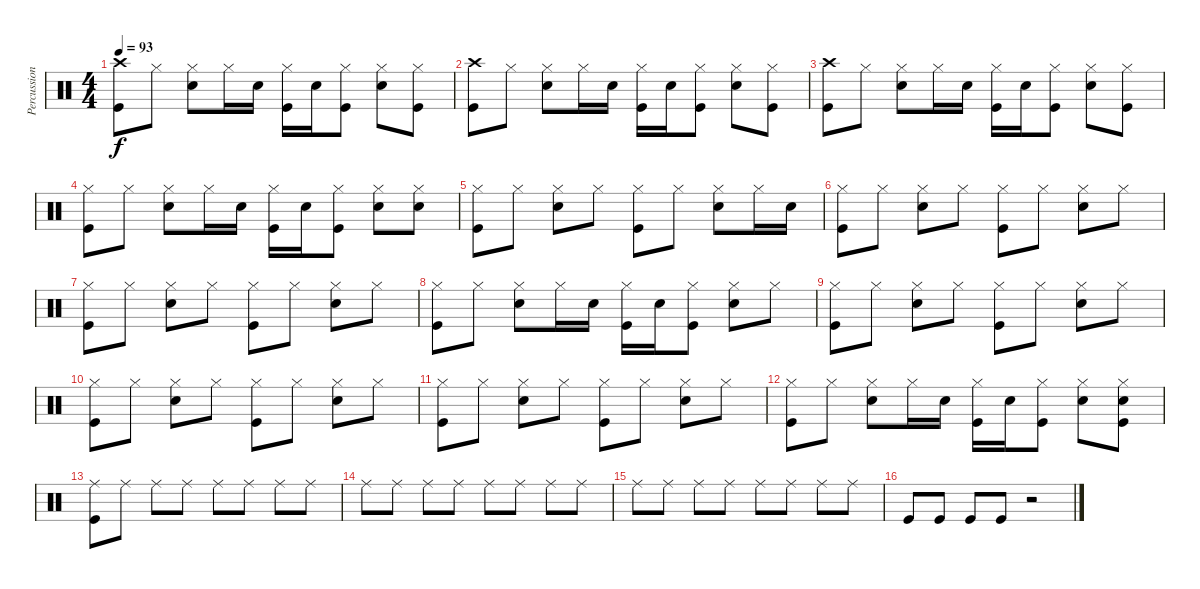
\track ("Percussion" "Percussion") {instrument percussion}
\staff {score}
\articulation defaults
\ts (4 4)
\tempo 93
\clef neutral
\ks c
("Crash high (hit)" "Kick (hit)").8{dy f} "Hi-Hat (closed)".8 ("Hi-Hat (closed)" "Snare (hit) 2").8 "Hi-Hat (closed)".16 "Snare (hit) 2".16 ("Hi-Hat (closed)" "Kick (hit)").16 "Snare (hit) 2".16 ("Hi-Hat (closed)" "Kick (hit)").8 ("Hi-Hat (closed)" "Snare (hit) 2").8 ("Hi-Hat (closed)" "Kick (hit)").8 |
("Crash high (hit)" "Kick (hit)").8 "Hi-Hat (closed)".8 ("Hi-Hat (closed)" "Snare (hit) 2").8 "Hi-Hat (closed)".16 "Snare (hit) 2".16 ("Hi-Hat (closed)" "Kick (hit)").16 "Snare (hit) 2".16 ("Hi-Hat (closed)" "Kick (hit)").8 ("Hi-Hat (closed)" "Snare (hit) 2").8 ("Hi-Hat (closed)" "Kick (hit)").8 |
("Crash high (hit)" "Kick (hit)").8 "Hi-Hat (closed)".8 ("Hi-Hat (closed)" "Snare (hit) 2").8 "Hi-Hat (closed)".16 "Snare (hit) 2".16 ("Hi-Hat (closed)" "Kick (hit)").16 "Snare (hit) 2".16 ("Hi-Hat (closed)" "Kick (hit)").8 ("Hi-Hat (closed)" "Snare (hit) 2").8 ("Hi-Hat (closed)" "Kick (hit)").8 |
("Hi-Hat (closed)" "Kick (hit)").8 "Hi-Hat (closed)".8 ("Hi-Hat (closed)" "Snare (hit) 2").8 "Hi-Hat (closed)".16 "Snare (hit) 2".16 ("Hi-Hat (closed)" "Kick (hit)").16 "Snare (hit) 2".16 ("Hi-Hat (closed)" "Kick (hit)").8 ("Hi-Hat (closed)" "Snare (hit) 2").8 ("Hi-Hat (closed)" "Snare (hit) 2").8 |
("Hi-Hat (closed)" "Kick (hit)").8 "Hi-Hat (closed)".8 ("Hi-Hat (closed)" "Snare (hit) 2").8 "Hi-Hat (closed)".8 ("Hi-Hat (closed)" "Kick (hit)").8 "Hi-Hat (closed)".8 ("Hi-Hat (closed)" "Snare (hit) 2").8 "Hi-Hat (closed)".16 "Snare (hit) 2".16 |
("Hi-Hat (closed)" "Kick (hit)").8 "Hi-Hat (closed)".8 ("Hi-Hat (closed)" "Snare (hit) 2").8 "Hi-Hat (closed)".8 ("Hi-Hat (closed)" "Kick (hit)").8 "Hi-Hat (closed)".8 ("Hi-Hat (closed)" "Snare (hit) 2").8 "Hi-Hat (closed)".8 |
("Hi-Hat (closed)" "Kick (hit)").8 "Hi-Hat (closed)".8 ("Hi-Hat (closed)" "Snare (hit) 2").8 "Hi-Hat (closed)".8 ("Hi-Hat (closed)" "Kick (hit)").8 "Hi-Hat (closed)".8 ("Hi-Hat (closed)" "Snare (hit) 2").8 "Hi-Hat (closed)".8 |
("Hi-Hat (closed)" "Kick (hit)").8 "Hi-Hat (closed)".8 ("Hi-Hat (closed)" "Snare (hit) 2").8 "Hi-Hat (closed)".16 "Snare (hit) 2".16 ("Hi-Hat (closed)" "Kick (hit)").16 "Snare (hit) 2".16 ("Hi-Hat (closed)" "Kick (hit)").8 ("Hi-Hat (closed)" "Snare (hit) 2").8 "Hi-Hat (closed)".8 |
("Hi-Hat (closed)" "Kick (hit)").8 "Hi-Hat (closed)".8 ("Hi-Hat (closed)" "Snare (hit) 2").8 "Hi-Hat (closed)".8 ("Hi-Hat (closed)" "Kick (hit)").8 "Hi-Hat (closed)".8 ("Hi-Hat (closed)" "Snare (hit) 2").8 "Hi-Hat (closed)".8 |
("Hi-Hat (closed)" "Kick (hit)").8 "Hi-Hat (closed)".8 ("Hi-Hat (closed)" "Snare (hit) 2").8 "Hi-Hat (closed)".8 ("Hi-Hat (closed)" "Kick (hit)").8 "Hi-Hat (closed)".8 ("Hi-Hat (closed)" "Snare (hit) 2").8 "Hi-Hat (closed)".8 |
("Hi-Hat (closed)" "Kick (hit)").8 "Hi-Hat (closed)".8 ("Hi-Hat (closed)" "Snare (hit) 2").8 "Hi-Hat (closed)".8 ("Hi-Hat (closed)" "Kick (hit)").8 "Hi-Hat (closed)".8 ("Hi-Hat (closed)" "Snare (hit) 2").8 "Hi-Hat (closed)".8 |
("Hi-Hat (closed)" "Kick (hit)").8 "Hi-Hat (closed)".8 ("Hi-Hat (closed)" "Snare (hit) 2").8 "Hi-Hat (closed)".16 "Snare (hit) 2".16 ("Hi-Hat (closed)" "Kick (hit)").16 "Snare (hit) 2".16 ("Hi-Hat (closed)" "Kick (hit)").8 ("Hi-Hat (closed)" "Snare (hit) 2").8 ("Hi-Hat (closed)" "Snare (hit) 2" "Kick (hit)").8 |
("Ride (middle)" "Kick (hit)").8 "Ride (middle)".8 "Ride (middle)".8 "Ride (middle)".8 "Ride (middle)".8 "Ride (middle)".8 "Ride (middle)".8 "Ride (middle)".8 |
"Ride (middle)".8 "Ride (middle)".8 "Ride (middle)".8 "Ride (middle)".8 "Ride (middle)".8 "Ride (middle)".8 "Ride (middle)".8 "Ride (middle)".8 |
"Ride (middle)".8 "Ride (middle)".8 "Ride (middle)".8 "Ride (middle)".8 "Ride (middle)".8 "Ride (middle)".8 "Ride (middle)".8 "Ride (middle)".8 |
"Kick (hit)".8 "Kick (hit)".8 "Kick (hit)".8 "Kick (hit)".8 r.2
